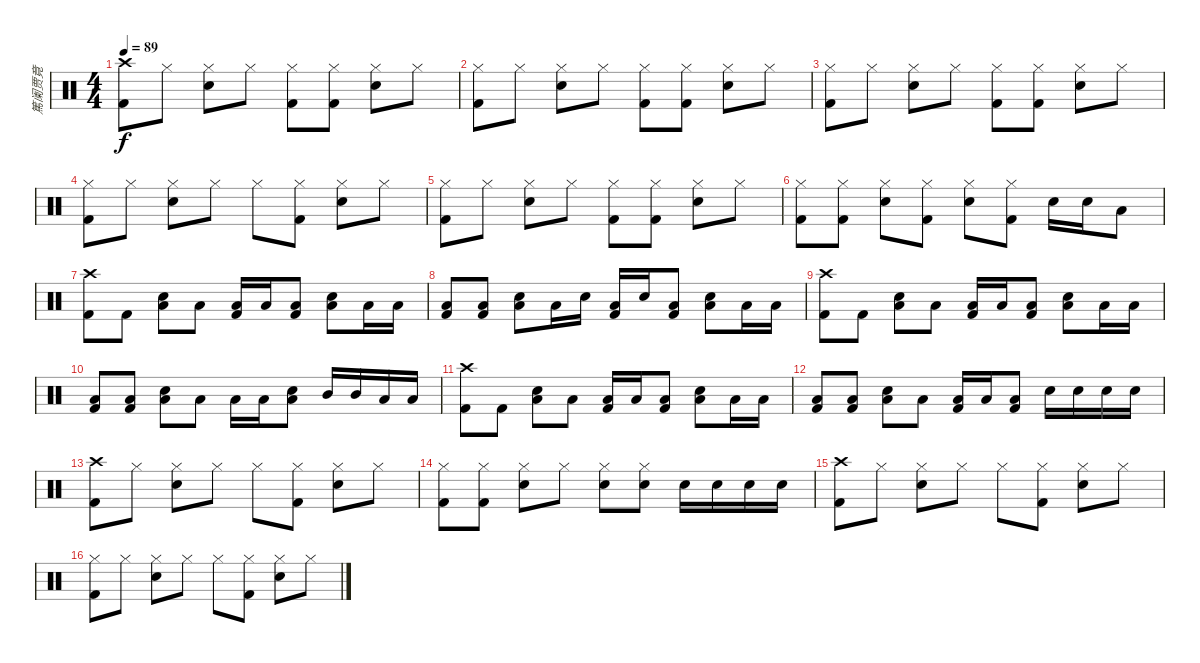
\track ("篤阑贾竟" "篤阑贾竟") {instrument percussion}
\staff {score}
\articulation defaults
\ts (4 4)
\tempo 89
\clef neutral
\ks c
("Crash high (hit)" "Kick (hit) 2").8{dy f} "Hi-Hat (closed)".8 ("Hi-Hat (closed)" "Snare (hit) 2").8 "Hi-Hat (closed)".8 ("Hi-Hat (closed)" "Kick (hit) 2").8 ("Hi-Hat (closed)" "Kick (hit) 2").8 ("Hi-Hat (closed)" "Snare (hit) 2").8 "Hi-Hat (closed)".8 |
("Hi-Hat (closed)" "Kick (hit) 2").8 "Hi-Hat (closed)".8 ("Hi-Hat (closed)" "Snare (hit) 2").8 "Hi-Hat (closed)".8 ("Hi-Hat (closed)" "Kick (hit) 2").8 ("Hi-Hat (closed)" "Kick (hit) 2").8 ("Hi-Hat (closed)" "Snare (hit) 2").8 "Hi-Hat (closed)".8 |
("Hi-Hat (closed)" "Kick (hit) 2").8 "Hi-Hat (closed)".8 ("Hi-Hat (closed)" "Snare (hit) 2").8 "Hi-Hat (closed)".8 ("Hi-Hat (closed)" "Kick (hit) 2").8 ("Hi-Hat (closed)" "Kick (hit) 2").8 ("Hi-Hat (closed)" "Snare (hit) 2").8 "Hi-Hat (closed)".8 |
("Hi-Hat (closed)" "Kick (hit) 2").8 "Hi-Hat (closed)".8 ("Hi-Hat (closed)" "Snare (hit) 2").8 "Hi-Hat (closed)".8 "Hi-Hat (closed)".8 ("Hi-Hat (closed)" "Kick (hit) 2").8 ("Hi-Hat (closed)" "Snare (hit) 2").8 "Hi-Hat (closed)".8 |
("Hi-Hat (closed)" "Kick (hit) 2").8 "Hi-Hat (closed)".8 ("Hi-Hat (closed)" "Snare (hit) 2").8 "Hi-Hat (closed)".8 ("Hi-Hat (closed)" "Kick (hit) 2").8 ("Hi-Hat (closed)" "Kick (hit) 2").8 ("Hi-Hat (closed)" "Snare (hit) 2").8 "Hi-Hat (closed)".8 |
("Hi-Hat (closed)" "Kick (hit) 2").8 ("Hi-Hat (closed)" "Kick (hit) 2").8 ("Hi-Hat (closed)" "Snare (hit) 2").8 ("Hi-Hat (closed)" "Kick (hit) 2").8 ("Hi-Hat (closed)" "Snare (hit) 2").8 ("Hi-Hat (closed)" "Kick (hit) 2").8 "Snare (hit) 2".16 "Snare (hit) 2".16 "Low Tom (hit)".8 |
("Crash high (hit)" "Kick (hit) 2").8 "Kick (hit) 2".8 ("Snare (hit) 2" "Low Floor Tom (hit)").8 "Low Floor Tom (hit)".8 ("Low Floor Tom (hit)" "Kick (hit) 2").16 "Low Floor Tom (hit)".16 ("Low Floor Tom (hit)" "Kick (hit) 2").8 ("Snare (hit) 2" "Low Floor Tom (hit)").8 "Low Floor Tom (hit)".16 "Low Floor Tom (hit)".16 |
("Low Floor Tom (hit)" "Kick (hit) 2").8 ("Low Floor Tom (hit)" "Kick (hit) 2").8 ("Snare (hit) 2" "Low Floor Tom (hit)").8 "Low Floor Tom (hit)".16 "Snare (hit) 2".16 ("Low Floor Tom (hit)" "Kick (hit) 2").16 "Snare (hit) 2".16 ("Low Floor Tom (hit)" "Kick (hit) 2").8 ("Snare (hit) 2" "Low Floor Tom (hit)").8 "Low Floor Tom (hit)".16 "Low Floor Tom (hit)".16 |
("Crash high (hit)" "Kick (hit) 2").8 "Kick (hit) 2".8 ("Snare (hit) 2" "Low Floor Tom (hit)").8 "Low Floor Tom (hit)".8 ("Low Floor Tom (hit)" "Kick (hit) 2").16 "Low Floor Tom (hit)".16 ("Low Floor Tom (hit)" "Kick (hit) 2").8 ("Snare (hit) 2" "Low Floor Tom (hit)").8 "Low Floor Tom (hit)".16 "Low Floor Tom (hit)".16 |
("Low Floor Tom (hit)" "Kick (hit) 2").8 ("Low Floor Tom (hit)" "Kick (hit) 2").8 ("Snare (hit) 2" "Low Floor Tom (hit)").8 "Low Floor Tom (hit)".8 "Low Floor Tom (hit)".16 "Low Floor Tom (hit)".16 ("Snare (hit) 2" "Low Floor Tom (hit)").8 "Mid Tom (hit)".16 "Mid Tom (hit)".16 "Low Tom (hit)".16 "Low Tom (hit)".16 |
("Crash high (hit)" "Kick (hit) 2").8 "Kick (hit) 2".8 ("Snare (hit) 2" "Low Floor Tom (hit)").8 "Low Floor Tom (hit)".8 ("Low Floor Tom (hit)" "Kick (hit) 2").16 "Low Floor Tom (hit)".16 ("Low Floor Tom (hit)" "Kick (hit) 2").8 ("Snare (hit) 2" "Low Floor Tom (hit)").8 "Low Floor Tom (hit)".16 "Low Floor Tom (hit)".16 |
("Low Floor Tom (hit)" "Kick (hit) 2").8 ("Low Floor Tom (hit)" "Kick (hit) 2").8 ("Snare (hit) 2" "Low Floor Tom (hit)").8 "Low Floor Tom (hit)".8 ("Low Floor Tom (hit)" "Kick (hit) 2").16 "Low Floor Tom (hit)".16 ("Low Floor Tom (hit)" "Kick (hit) 2").8 "Snare (hit) 2".16 "Snare (hit) 2".16 "Snare (hit) 2".16 "Snare (hit) 2".16 |
("Crash high (hit)" "Kick (hit) 2").8 "Hi-Hat (closed)".8 ("Hi-Hat (closed)" "Snare (hit) 2").8 "Hi-Hat (closed)".8 "Hi-Hat (closed)".8 ("Hi-Hat (closed)" "Kick (hit) 2").8 ("Hi-Hat (closed)" "Snare (hit) 2").8 "Hi-Hat (closed)".8 |
("Hi-Hat (closed)" "Kick (hit) 2").8 ("Hi-Hat (closed)" "Kick (hit) 2").8 ("Hi-Hat (closed)" "Snare (hit) 2").8 "Hi-Hat (closed)".8 ("Hi-Hat (closed)" "Snare (hit) 2").8 ("Hi-Hat (closed)" "Snare (hit) 2").8 "Snare (hit) 2".16 "Snare (hit) 2".16 "Snare (hit) 2".16 "Snare (hit) 2".16 |
("Crash high (hit)" "Kick (hit) 2").8 "Hi-Hat (closed)".8 ("Hi-Hat (closed)" "Snare (hit) 2").8 "Hi-Hat (closed)".8 "Hi-Hat (closed)".8 ("Hi-Hat (closed)" "Kick (hit) 2").8 ("Hi-Hat (closed)" "Snare (hit) 2").8 "Hi-Hat (closed)".8 |
("Hi-Hat (closed)" "Kick (hit) 2").8 "Hi-Hat (closed)".8 ("Hi-Hat (closed)" "Snare (hit) 2").8 "Hi-Hat (closed)".8 "Hi-Hat (closed)".8 ("Hi-Hat (closed)" "Kick (hit) 2").8 ("Hi-Hat (closed)" "Snare (hit) 2").8 "Hi-Hat (closed)".8
